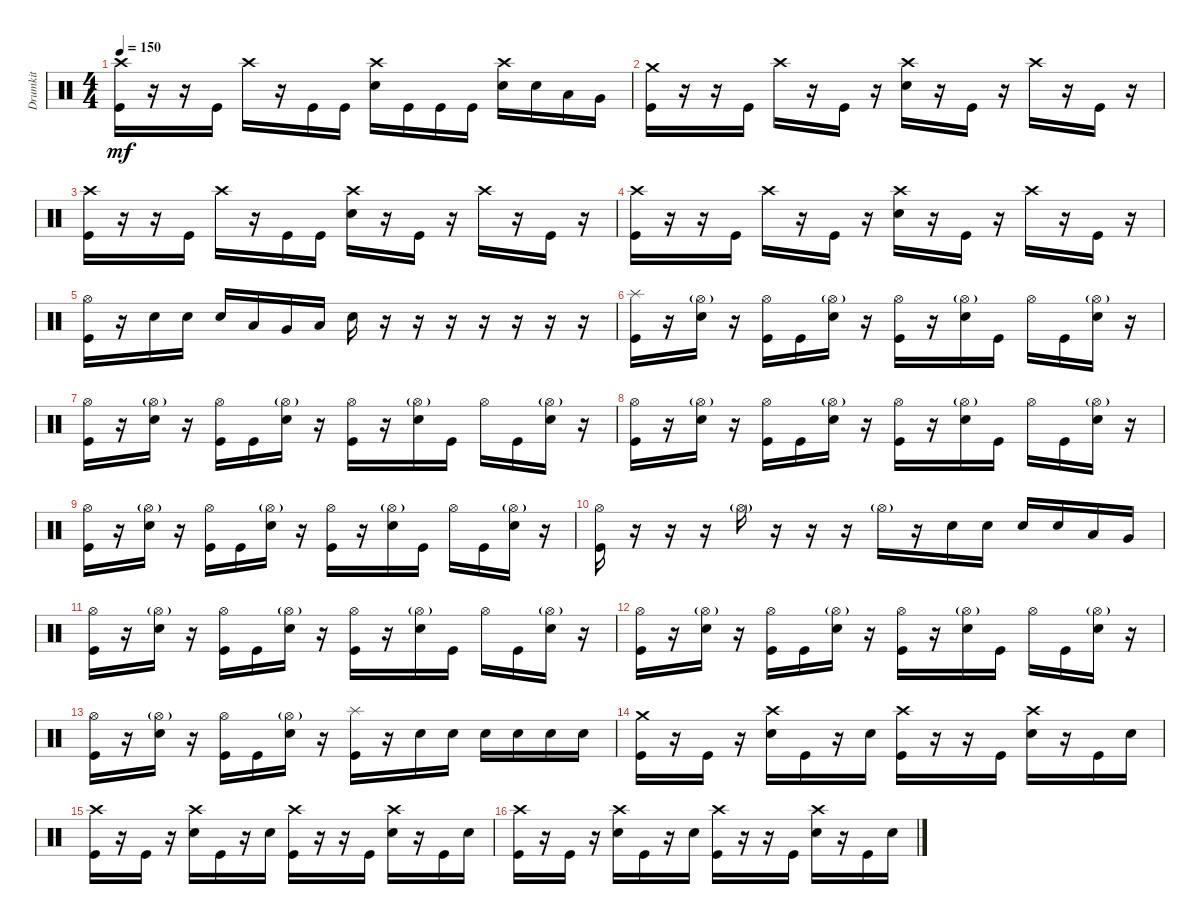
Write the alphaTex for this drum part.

\track ("Drumkit" "Drumkit") {instrument percussion}
\staff {score}
\articulation defaults
\ts (4 4)
\tempo 150
\clef neutral
\ks c
("Kick (hit)" "Crash high (hit)").16{dy mf} r.16 r.16 "Kick (hit)".16 "Crash high (hit)".16 r.16 "Kick (hit)".16 "Kick (hit)".16 ("Snare (hit) 2" "Crash high (hit)").16 "Kick (hit)".16 "Kick (hit)".16 "Kick (hit)".16 ("Crash high (hit)" "Snare (hit) 2").16 "Snare (hit) 2".16 "Low Tom (hit)".16 "Very Low Tom (hit)".16 |
("Kick (hit)" "Crash medium (hit)").16 r.16 r.16 "Kick (hit)".16 "Crash high (hit)".16 r.16 "Kick (hit)".16 r.16 ("Snare (hit) 2" "Crash high (hit)").16 r.16 "Kick (hit)".16 r.16 "Crash high (hit)".16 r.16 "Kick (hit)".16 r.16 |
("Kick (hit)" "Crash high (hit)").16 r.16 r.16 "Kick (hit)".16 "Crash high (hit)".16 r.16 "Kick (hit)".16 "Kick (hit)".16 ("Snare (hit) 2" "Crash high (hit)").16 r.16 "Kick (hit)".16 r.16 "Crash high (hit)".16 r.16 "Kick (hit)".16 r.16 |
("Kick (hit)" "Crash high (hit)").16 r.16 r.16 "Kick (hit)".16 "Crash high (hit)".16 r.16 "Kick (hit)".16 r.16 ("Snare (hit) 2" "Crash high (hit)").16 r.16 "Kick (hit)".16 r.16 "Crash high (hit)".16 r.16 "Kick (hit)".16 r.16 |
("Kick (hit)" "Hi-Hat (open)").16 r.16 "Snare (hit) 2".16 "Snare (hit) 2".16 "Snare (hit) 2".16 "Low Tom (hit)".16 "Very Low Tom (hit)".16 "Low Floor Tom (hit)".16 "Snare (hit) 2".16 r.16 r.16 r.16 r.16 r.16 r.16 r.16 |
("Kick (hit)" "Splash (hit)").16 r.16 ("Snare (hit) 2" "Hi-Hat (open)"{g}).16 r.16 ("Kick (hit)" "Hi-Hat (open)").16 "Kick (hit)".16 ("Snare (hit) 2" "Hi-Hat (open)"{g}).16 r.16 ("Kick (hit)" "Hi-Hat (open)").16 r.16 ("Snare (hit) 2" "Hi-Hat (open)"{g}).16 "Kick (hit)".16 "Hi-Hat (open)".16 "Kick (hit)".16 ("Snare (hit) 2" "Hi-Hat (open)"{g}).16 r.16 |
("Kick (hit)" "Hi-Hat (open)").16 r.16 ("Snare (hit) 2" "Hi-Hat (open)"{g}).16 r.16 ("Kick (hit)" "Hi-Hat (open)").16 "Kick (hit)".16 ("Snare (hit) 2" "Hi-Hat (open)"{g}).16 r.16 ("Kick (hit)" "Hi-Hat (open)").16 r.16 ("Snare (hit) 2" "Hi-Hat (open)"{g}).16 "Kick (hit)".16 "Hi-Hat (open)".16 "Kick (hit)".16 ("Snare (hit) 2" "Hi-Hat (open)"{g}).16 r.16 |
("Kick (hit)" "Hi-Hat (open)").16 r.16 ("Snare (hit) 2" "Hi-Hat (open)"{g}).16 r.16 ("Kick (hit)" "Hi-Hat (open)").16 "Kick (hit)".16 ("Snare (hit) 2" "Hi-Hat (open)"{g}).16 r.16 ("Kick (hit)" "Hi-Hat (open)").16 r.16 ("Snare (hit) 2" "Hi-Hat (open)"{g}).16 "Kick (hit)".16 "Hi-Hat (open)".16 "Kick (hit)".16 ("Snare (hit) 2" "Hi-Hat (open)"{g}).16 r.16 |
("Kick (hit)" "Hi-Hat (open)").16 r.16 ("Snare (hit) 2" "Hi-Hat (open)"{g}).16 r.16 ("Kick (hit)" "Hi-Hat (open)").16 "Kick (hit)".16 ("Snare (hit) 2" "Hi-Hat (open)"{g}).16 r.16 ("Kick (hit)" "Hi-Hat (open)").16 r.16 ("Snare (hit) 2" "Hi-Hat (open)"{g}).16 "Kick (hit)".16 "Hi-Hat (open)".16 "Kick (hit)".16 ("Snare (hit) 2" "Hi-Hat (open)"{g}).16 r.16 |
("Hi-Hat (open)" "Kick (hit)").16 r.16 r.16 r.16 "Hi-Hat (open)"{g}.16 r.16 r.16 r.16 "Hi-Hat (open)"{g}.16 r.16 "Snare (hit) 2".16 "Snare (hit) 2".16 "Snare (hit) 2".16 "Snare (hit) 2".16 "Low Tom (hit)".16 "Very Low Tom (hit)".16 |
("Kick (hit)" "Hi-Hat (open)").16 r.16 ("Snare (hit) 2" "Hi-Hat (open)"{g}).16 r.16 ("Kick (hit)" "Hi-Hat (open)").16 "Kick (hit)".16 ("Snare (hit) 2" "Hi-Hat (open)"{g}).16 r.16 ("Kick (hit)" "Hi-Hat (open)").16 r.16 ("Snare (hit) 2" "Hi-Hat (open)"{g}).16 "Kick (hit)".16 "Hi-Hat (open)".16 "Kick (hit)".16 ("Snare (hit) 2" "Hi-Hat (open)"{g}).16 r.16 |
("Kick (hit)" "Hi-Hat (open)").16 r.16 ("Snare (hit) 2" "Hi-Hat (open)"{g}).16 r.16 ("Kick (hit)" "Hi-Hat (open)").16 "Kick (hit)".16 ("Snare (hit) 2" "Hi-Hat (open)"{g}).16 r.16 ("Kick (hit)" "Hi-Hat (open)").16 r.16 ("Snare (hit) 2" "Hi-Hat (open)"{g}).16 "Kick (hit)".16 "Hi-Hat (open)".16 "Kick (hit)".16 ("Snare (hit) 2" "Hi-Hat (open)"{g}).16 r.16 |
("Kick (hit)" "Hi-Hat (open)").16 r.16 ("Snare (hit) 2" "Hi-Hat (open)"{g}).16 r.16 ("Kick (hit)" "Hi-Hat (open)").16 "Kick (hit)".16 ("Snare (hit) 2" "Hi-Hat (open)"{g}).16 r.16 ("Kick (hit)" "Splash (hit)").16 r.16 "Snare (hit) 2".16 "Snare (hit) 2".16 "Snare (hit) 2".16 "Snare (hit) 2".16 "Snare (hit) 2".16 "Snare (hit) 2".16 |
("Crash medium (hit)" "Kick (hit)").16 r.16 "Kick (hit)".16 r.16 ("Crash high (hit)" "Snare (hit) 2").16 "Kick (hit)".16 r.16 "Snare (hit) 2".16 ("Crash high (hit)" "Kick (hit)").16 r.16 r.16 "Kick (hit)".16 ("Crash high (hit)" "Snare (hit) 2").16 r.16 "Kick (hit)".16 "Snare (hit) 2".16 |
("Kick (hit)" "Crash high (hit)").16 r.16 "Kick (hit)".16 r.16 ("Crash high (hit)" "Snare (hit) 2").16 "Kick (hit)".16 r.16 "Snare (hit) 2".16 ("Crash high (hit)" "Kick (hit)").16 r.16 r.16 "Kick (hit)".16 ("Crash high (hit)" "Snare (hit) 2").16 r.16 "Kick (hit)".16 "Snare (hit) 2".16 |
("Kick (hit)" "Crash high (hit)").16 r.16 "Kick (hit)".16 r.16 ("Crash high (hit)" "Snare (hit) 2").16 "Kick (hit)".16 r.16 "Snare (hit) 2".16 ("Crash high (hit)" "Kick (hit)").16 r.16 r.16 "Kick (hit)".16 ("Crash high (hit)" "Snare (hit) 2").16 r.16 "Kick (hit)".16 "Snare (hit) 2".16
